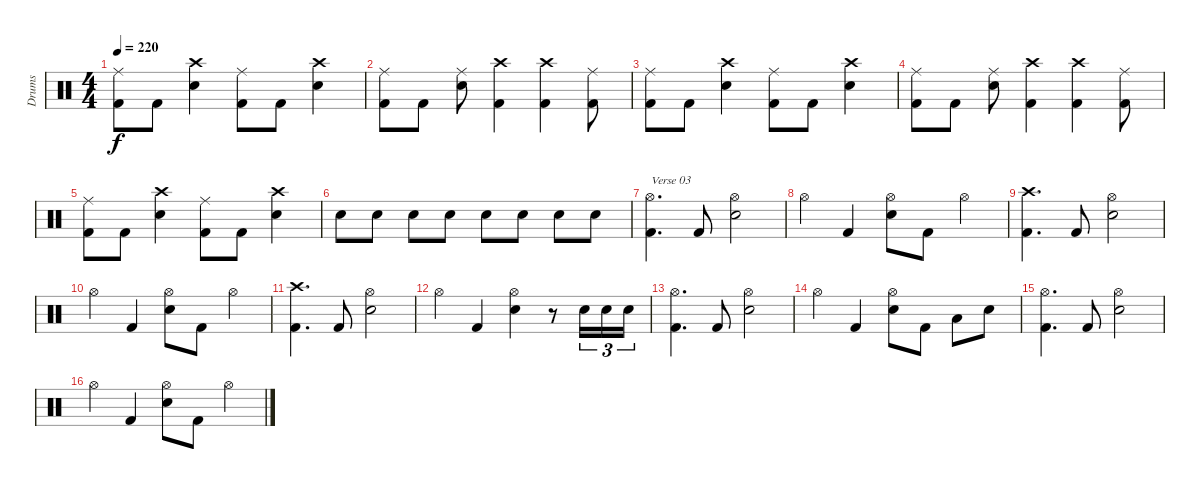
\track ("Drums" "Drums") {instrument percussion}
\staff {score}
\articulation defaults
\ts (4 4)
\tempo 220
\clef neutral
\ks c
("Ride (middle)" "Kick (hit) 2").8{dy f} "Kick (hit) 2".8 ("Crash high (hit)" "Snare (hit) 2").4 ("Ride (middle)" "Kick (hit) 2").8 "Kick (hit) 2".8 ("Crash high (hit)" "Snare (hit) 2").4 |
("Ride (middle)" "Kick (hit) 2").8 "Kick (hit) 2".8 ("Ride (middle)" "Snare (hit) 2").8 ("Crash high (hit)" "Kick (hit) 2").4 ("Crash high (hit)" "Kick (hit) 2").4 ("Ride (middle)" "Kick (hit) 2").8 |
("Ride (middle)" "Kick (hit) 2").8 "Kick (hit) 2".8 ("Crash high (hit)" "Snare (hit) 2").4 ("Ride (middle)" "Kick (hit) 2").8 "Kick (hit) 2".8 ("Crash high (hit)" "Snare (hit) 2").4 |
("Ride (middle)" "Kick (hit) 2").8 "Kick (hit) 2".8 ("Ride (middle)" "Snare (hit) 2").8 ("Crash high (hit)" "Kick (hit) 2").4 ("Crash high (hit)" "Kick (hit) 2").4 ("Ride (middle)" "Kick (hit) 2").8 |
("Ride (middle)" "Kick (hit) 2").8 "Kick (hit) 2".8 ("Crash high (hit)" "Snare (hit) 2").4 ("Ride (middle)" "Kick (hit) 2").8 "Kick (hit) 2".8 ("Crash high (hit)" "Snare (hit) 2").4 |
"Snare (hit) 2".8 "Snare (hit) 2".8 "Snare (hit) 2".8 "Snare (hit) 2".8 "Snare (hit) 2".8 "Snare (hit) 2".8 "Snare (hit) 2".8 "Snare (hit) 2".8 |
("Hi-Hat (open)" "Kick (hit) 2").4{d txt "Verse 03"} "Kick (hit) 2".8 ("Hi-Hat (open)" "Snare (hit) 2").2 |
"Hi-Hat (open)".4 "Kick (hit) 2".4 ("Hi-Hat (open)" "Snare (hit) 2").8 "Kick (hit) 2".8 "Hi-Hat (open)".4 |
("Crash high (hit)" "Kick (hit) 2").4{d} "Kick (hit) 2".8 ("Hi-Hat (open)" "Snare (hit) 2").2 |
"Hi-Hat (open)".4 "Kick (hit) 2".4 ("Hi-Hat (open)" "Snare (hit) 2").8 "Kick (hit) 2".8 "Hi-Hat (open)".4 |
("Crash high (hit)" "Kick (hit) 2").4{d} "Kick (hit) 2".8 ("Hi-Hat (open)" "Snare (hit) 2").2 |
"Hi-Hat (open)".4 "Kick (hit) 2".4 ("Hi-Hat (open)" "Snare (hit) 2").4 r.8 "Snare (hit) 2".16{tu (3 2)} "Snare (hit) 2".16{tu (3 2)} "Snare (hit) 2".16{tu (3 2)} |
("Hi-Hat (open)" "Kick (hit) 2").4{d} "Kick (hit) 2".8 ("Hi-Hat (open)" "Snare (hit) 2").2 |
"Hi-Hat (open)".4 "Kick (hit) 2".4 ("Hi-Hat (open)" "Snare (hit) 2").8 "Kick (hit) 2".8 "Low Tom (hit)".8 "Snare (hit) 2".8 |
("Hi-Hat (open)" "Kick (hit) 2").4{d} "Kick (hit) 2".8 ("Hi-Hat (open)" "Snare (hit) 2").2 |
"Hi-Hat (open)".4 "Kick (hit) 2".4 ("Hi-Hat (open)" "Snare (hit) 2").8 "Kick (hit) 2".8 "Hi-Hat (open)".4
